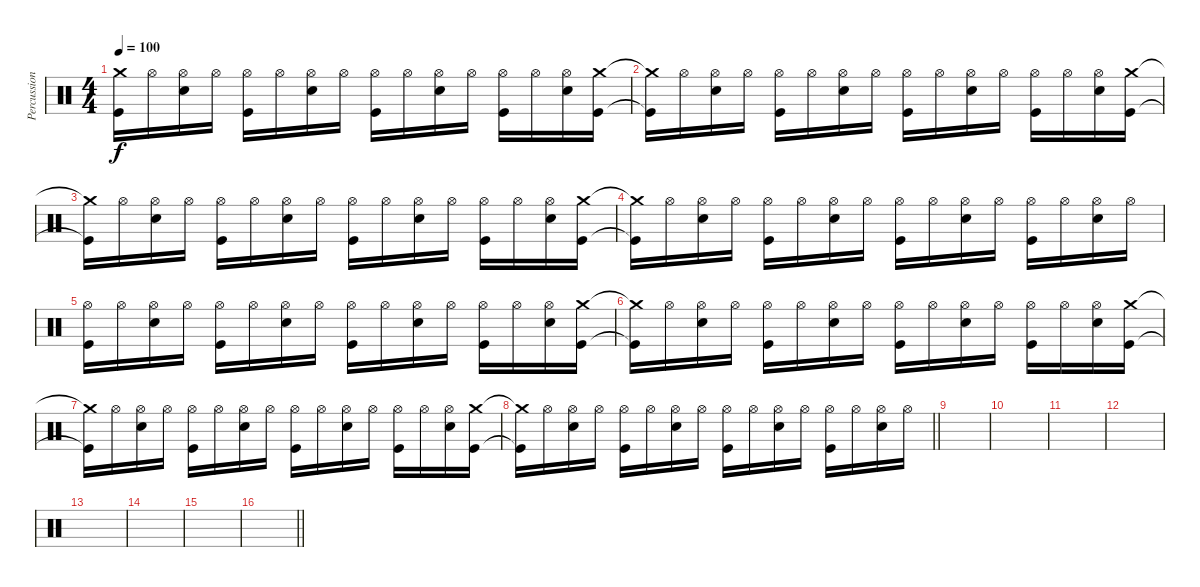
\track ("Percussion" "Percussion") {instrument percussion}
\staff {score}
\articulation defaults
\ts (4 4)
\tempo 100
\clef neutral
\ks c
("Crash medium (hit)"{t} "Kick (hit)"{t}).16{dy f} "Hi-Hat (open)".16 ("Hi-Hat (open)" "Snare (hit) 2").16 "Hi-Hat (open)".16 ("Hi-Hat (open)" "Kick (hit)").16 "Hi-Hat (open)".16 ("Hi-Hat (open)" "Snare (hit) 2").16 "Hi-Hat (open)".16 ("Hi-Hat (open)" "Kick (hit)").16 "Hi-Hat (open)".16 ("Hi-Hat (open)" "Snare (hit) 2").16 "Hi-Hat (open)".16 ("Hi-Hat (open)" "Kick (hit)").16 "Hi-Hat (open)".16 ("Hi-Hat (open)" "Snare (hit) 2").16 ("Crash medium (hit)" "Kick (hit)").16 |
("Crash medium (hit)"{t} "Kick (hit)"{t}).16 "Hi-Hat (open)".16 ("Hi-Hat (open)" "Snare (hit) 2").16 "Hi-Hat (open)".16 ("Hi-Hat (open)" "Kick (hit)").16 "Hi-Hat (open)".16 ("Hi-Hat (open)" "Snare (hit) 2").16 "Hi-Hat (open)".16 ("Hi-Hat (open)" "Kick (hit)").16 "Hi-Hat (open)".16 ("Hi-Hat (open)" "Snare (hit) 2").16 "Hi-Hat (open)".16 ("Hi-Hat (open)" "Kick (hit)").16 "Hi-Hat (open)".16 ("Hi-Hat (open)" "Snare (hit) 2").16 ("Crash medium (hit)" "Kick (hit)").16 |
("Crash medium (hit)"{t} "Kick (hit)"{t}).16 "Hi-Hat (open)".16 ("Hi-Hat (open)" "Snare (hit) 2").16 "Hi-Hat (open)".16 ("Hi-Hat (open)" "Kick (hit)").16 "Hi-Hat (open)".16 ("Hi-Hat (open)" "Snare (hit) 2").16 "Hi-Hat (open)".16 ("Hi-Hat (open)" "Kick (hit)").16 "Hi-Hat (open)".16 ("Hi-Hat (open)" "Snare (hit) 2").16 "Hi-Hat (open)".16 ("Hi-Hat (open)" "Kick (hit)").16 "Hi-Hat (open)".16 ("Hi-Hat (open)" "Snare (hit) 2").16 ("Crash medium (hit)" "Kick (hit)").16 |
("Crash medium (hit)"{t} "Kick (hit)"{t}).16 "Hi-Hat (open)".16 ("Hi-Hat (open)" "Snare (hit) 2").16 "Hi-Hat (open)".16 ("Hi-Hat (open)" "Kick (hit)").16 "Hi-Hat (open)".16 ("Hi-Hat (open)" "Snare (hit) 2").16 "Hi-Hat (open)".16 ("Hi-Hat (open)" "Kick (hit)").16 "Hi-Hat (open)".16 ("Hi-Hat (open)" "Snare (hit) 2").16 "Hi-Hat (open)".16 ("Hi-Hat (open)" "Kick (hit)").16 "Hi-Hat (open)".16 ("Hi-Hat (open)" "Snare (hit) 2").16 "Hi-Hat (open)".16 |
("Hi-Hat (open)" "Kick (hit)").16 "Hi-Hat (open)".16 ("Hi-Hat (open)" "Snare (hit) 2").16 "Hi-Hat (open)".16 ("Hi-Hat (open)" "Kick (hit)").16 "Hi-Hat (open)".16 ("Hi-Hat (open)" "Snare (hit) 2").16 "Hi-Hat (open)".16 ("Hi-Hat (open)" "Kick (hit)").16 "Hi-Hat (open)".16 ("Hi-Hat (open)" "Snare (hit) 2").16 "Hi-Hat (open)".16 ("Hi-Hat (open)" "Kick (hit)").16 "Hi-Hat (open)".16 ("Hi-Hat (open)" "Snare (hit) 2").16 ("Crash medium (hit)" "Kick (hit)").16 |
("Crash medium (hit)"{t} "Kick (hit)"{t}).16 "Hi-Hat (open)".16 ("Hi-Hat (open)" "Snare (hit) 2").16 "Hi-Hat (open)".16 ("Hi-Hat (open)" "Kick (hit)").16 "Hi-Hat (open)".16 ("Hi-Hat (open)" "Snare (hit) 2").16 "Hi-Hat (open)".16 ("Hi-Hat (open)" "Kick (hit)").16 "Hi-Hat (open)".16 ("Hi-Hat (open)" "Snare (hit) 2").16 "Hi-Hat (open)".16 ("Hi-Hat (open)" "Kick (hit)").16 "Hi-Hat (open)".16 ("Hi-Hat (open)" "Snare (hit) 2").16 ("Crash medium (hit)" "Kick (hit)").16 |
("Crash medium (hit)"{t} "Kick (hit)"{t}).16 "Hi-Hat (open)".16 ("Hi-Hat (open)" "Snare (hit) 2").16 "Hi-Hat (open)".16 ("Hi-Hat (open)" "Kick (hit)").16 "Hi-Hat (open)".16 ("Hi-Hat (open)" "Snare (hit) 2").16 "Hi-Hat (open)".16 ("Hi-Hat (open)" "Kick (hit)").16 "Hi-Hat (open)".16 ("Hi-Hat (open)" "Snare (hit) 2").16 "Hi-Hat (open)".16 ("Hi-Hat (open)" "Kick (hit)").16 "Hi-Hat (open)".16 ("Hi-Hat (open)" "Snare (hit) 2").16 ("Crash medium (hit)" "Kick (hit)").16 |
\barLineRight lightlight
("Crash medium (hit)"{t} "Kick (hit)"{t}).16 "Hi-Hat (open)".16 ("Hi-Hat (open)" "Snare (hit) 2").16 "Hi-Hat (open)".16 ("Hi-Hat (open)" "Kick (hit)").16 "Hi-Hat (open)".16 ("Hi-Hat (open)" "Snare (hit) 2").16 "Hi-Hat (open)".16 ("Hi-Hat (open)" "Kick (hit)").16 "Hi-Hat (open)".16 ("Hi-Hat (open)" "Snare (hit) 2").16 "Hi-Hat (open)".16 ("Hi-Hat (open)" "Kick (hit)").16 "Hi-Hat (open)".16 ("Hi-Hat (open)" "Snare (hit) 2").16 "Hi-Hat (open)".16 |
|
|
|
|
|
|
|
\barLineRight lightlight
